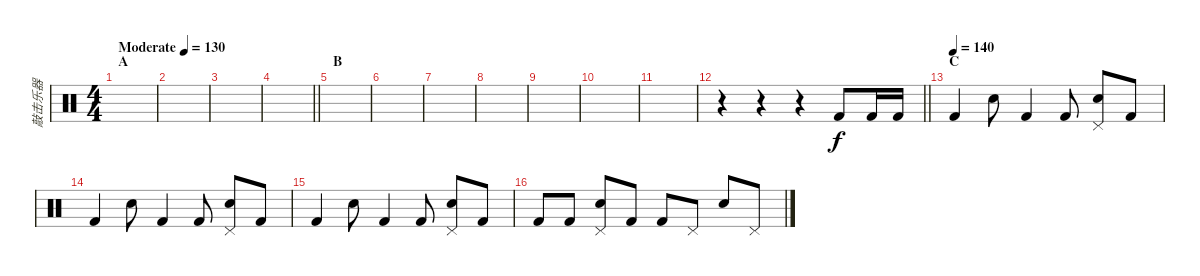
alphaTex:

\track ("敲击乐器" "敲击乐器") {instrument percussion}
\staff {score}
\articulation defaults
\ts (4 4)
\section ("" "A")
\tempo (130 "Moderate")
\clef neutral
\ks c
|
|
|
\barLineRight lightlight
|
\section ("" "B")
|
|
|
|
|
|
|
\barLineRight lightlight
r.4 r.4 r.4 "Kick (hit) 2".8 "Kick (hit) 2".16 "Kick (hit) 2".16 |
\section ("" "C")
\tempo (140)
"Kick (hit) 2".4 "Snare (hit) 2".8 "Kick (hit) 2".4 "Kick (hit) 2".8 ("Pedal Hi-Hat (hit)" "Snare (hit) 2").8 "Kick (hit) 2".8 |
"Kick (hit) 2".4 "Snare (hit) 2".8 "Kick (hit) 2".4 "Kick (hit) 2".8 ("Pedal Hi-Hat (hit)" "Snare (hit) 2").8 "Kick (hit) 2".8 |
"Kick (hit) 2".4 "Snare (hit) 2".8 "Kick (hit) 2".4 "Kick (hit) 2".8 ("Pedal Hi-Hat (hit)" "Snare (hit) 2").8 "Kick (hit) 2".8 |
"Kick (hit) 2".8 "Kick (hit) 2".8 ("Pedal Hi-Hat (hit)" "Snare (hit) 2").8 "Kick (hit) 2".8 "Kick (hit) 2".8 "Pedal Hi-Hat (hit)".8 "Snare (hit) 2".8 "Pedal Hi-Hat (hit)".8
